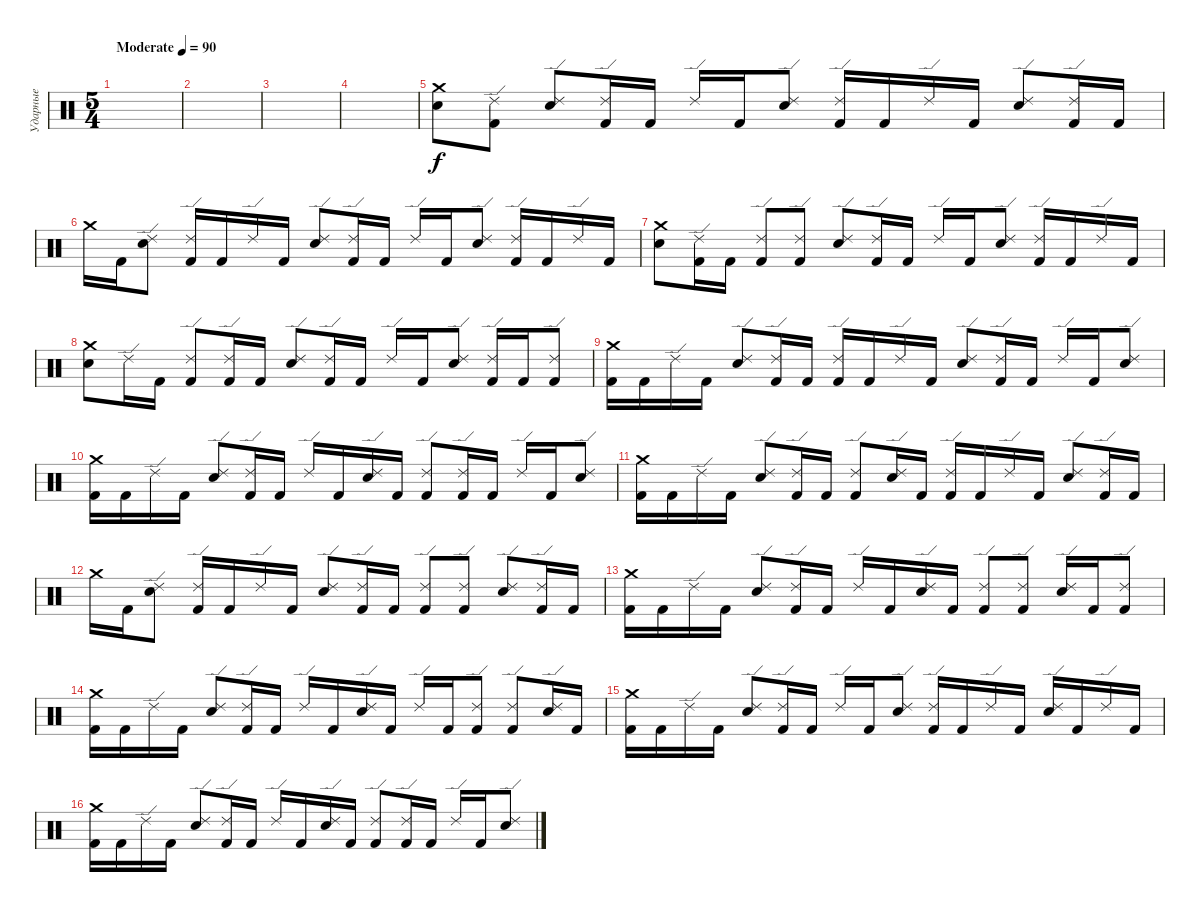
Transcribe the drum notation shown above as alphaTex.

\track ("Ударные" "Ударные") {instrument percussion}
\staff {score}
\articulation defaults
\ts (5 4)
\tempo (90 "Moderate")
\clef neutral
\ks c
|
|
|
|
("Crash medium (hit)" "Electric Snare (hit)").8 ("Ride (edge) 2" "Kick (hit) 2").8 ("Ride (edge) 2" "Electric Snare (hit)").8 ("Ride (edge) 2" "Kick (hit) 2").16 "Kick (hit) 2".16 "Ride (edge) 2".16 "Kick (hit) 2".16 ("Ride (edge) 2" "Electric Snare (hit)").8 ("Ride (edge) 2" "Kick (hit) 2").16 "Kick (hit) 2".16 "Ride (edge) 2".16 "Kick (hit) 2".16 ("Ride (edge) 2" "Electric Snare (hit)").8 ("Ride (edge) 2" "Kick (hit) 2").16 "Kick (hit) 2".16 |
"Crash medium (hit)".16 "Kick (hit) 2".16 ("Ride (edge) 2" "Electric Snare (hit)").8 ("Ride (edge) 2" "Kick (hit) 2").16 "Kick (hit) 2".16 "Ride (edge) 2".16 "Kick (hit) 2".16 ("Ride (edge) 2" "Electric Snare (hit)").8 ("Ride (edge) 2" "Kick (hit) 2").16 "Kick (hit) 2".16 "Ride (edge) 2".16 "Kick (hit) 2".16 ("Ride (edge) 2" "Electric Snare (hit)").8 ("Ride (edge) 2" "Kick (hit) 2").16 "Kick (hit) 2".16 "Ride (edge) 2".16 "Kick (hit) 2".16 |
("Crash medium (hit)" "Electric Snare (hit)").8 ("Ride (edge) 2" "Kick (hit) 2").16 "Kick (hit) 2".16 ("Ride (edge) 2" "Kick (hit) 2").8 ("Ride (edge) 2" "Kick (hit) 2").8 ("Ride (edge) 2" "Electric Snare (hit)").8 ("Ride (edge) 2" "Kick (hit) 2").16 "Kick (hit) 2".16 "Ride (edge) 2".16 "Kick (hit) 2".16 ("Ride (edge) 2" "Electric Snare (hit)").8 ("Ride (edge) 2" "Kick (hit) 2").16 "Kick (hit) 2".16 "Ride (edge) 2".16 "Kick (hit) 2".16 |
("Crash medium (hit)" "Electric Snare (hit)").8 "Ride (edge) 2".16 "Kick (hit) 2".16 ("Ride (edge) 2" "Kick (hit) 2").8 ("Ride (edge) 2" "Kick (hit) 2").16 "Kick (hit) 2".16 ("Ride (edge) 2" "Electric Snare (hit)").8 ("Ride (edge) 2" "Kick (hit) 2").16 "Kick (hit) 2".16 "Ride (edge) 2".16 "Kick (hit) 2".16 ("Ride (edge) 2" "Electric Snare (hit)").8 ("Ride (edge) 2" "Kick (hit) 2").16 "Kick (hit) 2".16 ("Ride (edge) 2" "Kick (hit) 2").8 |
("Crash medium (hit)" "Kick (hit) 2").16 "Kick (hit) 2".16 "Ride (edge) 2".16 "Kick (hit) 2".16 ("Ride (edge) 2" "Electric Snare (hit)").8 ("Ride (edge) 2" "Kick (hit) 2").16 "Kick (hit) 2".16 ("Ride (edge) 2" "Kick (hit) 2").16 "Kick (hit) 2".16 "Ride (edge) 2".16 "Kick (hit) 2".16 ("Ride (edge) 2" "Electric Snare (hit)").8 ("Ride (edge) 2" "Kick (hit) 2").16 "Kick (hit) 2".16 "Ride (edge) 2".16 "Kick (hit) 2".16 ("Ride (edge) 2" "Electric Snare (hit)").8 |
("Crash medium (hit)" "Kick (hit) 2").16 "Kick (hit) 2".16 "Ride (edge) 2".16 "Kick (hit) 2".16 ("Ride (edge) 2" "Electric Snare (hit)").8 ("Ride (edge) 2" "Kick (hit) 2").16 "Kick (hit) 2".16 "Ride (edge) 2".16 "Kick (hit) 2".16 ("Ride (edge) 2" "Electric Snare (hit)").16 "Kick (hit) 2".16 ("Ride (edge) 2" "Kick (hit) 2").8 ("Ride (edge) 2" "Kick (hit) 2").16 "Kick (hit) 2".16 "Ride (edge) 2".16 "Kick (hit) 2".16 ("Ride (edge) 2" "Electric Snare (hit)").8 |
("Crash medium (hit)" "Kick (hit) 2").16 "Kick (hit) 2".16 "Ride (edge) 2".16 "Kick (hit) 2".16 ("Ride (edge) 2" "Electric Snare (hit)").8 ("Ride (edge) 2" "Kick (hit) 2").16 "Kick (hit) 2".16 ("Ride (edge) 2" "Kick (hit) 2").8 ("Ride (edge) 2" "Electric Snare (hit)").16 "Kick (hit) 2".16 ("Ride (edge) 2" "Kick (hit) 2").16 "Kick (hit) 2".16 "Ride (edge) 2".16 "Kick (hit) 2".16 ("Ride (edge) 2" "Electric Snare (hit)").8 ("Ride (edge) 2" "Kick (hit) 2").16 "Kick (hit) 2".16 |
"Crash medium (hit)".16 "Kick (hit) 2".16 ("Ride (edge) 2" "Electric Snare (hit)").8 ("Ride (edge) 2" "Kick (hit) 2").16 "Kick (hit) 2".16 "Ride (edge) 2".16 "Kick (hit) 2".16 ("Ride (edge) 2" "Electric Snare (hit)").8 ("Ride (edge) 2" "Kick (hit) 2").16 "Kick (hit) 2".16 ("Ride (edge) 2" "Kick (hit) 2").8 ("Ride (edge) 2" "Kick (hit) 2").8 ("Ride (edge) 2" "Electric Snare (hit)").8 ("Ride (edge) 2" "Kick (hit) 2").16 "Kick (hit) 2".16 |
("Crash medium (hit)" "Kick (hit) 2").16 "Kick (hit) 2".16 "Ride (edge) 2".16 "Kick (hit) 2".16 ("Ride (edge) 2" "Electric Snare (hit)").8 ("Ride (edge) 2" "Kick (hit) 2").16 "Kick (hit) 2".16 "Ride (edge) 2".16 "Kick (hit) 2".16 ("Ride (edge) 2" "Electric Snare (hit)").16 "Kick (hit) 2".16 ("Ride (edge) 2" "Kick (hit) 2").8 ("Ride (edge) 2" "Kick (hit) 2").8 ("Ride (edge) 2" "Electric Snare (hit)").16 "Kick (hit) 2".16 ("Ride (edge) 2" "Kick (hit) 2").8 |
("Crash medium (hit)" "Kick (hit) 2").16 "Kick (hit) 2".16 "Ride (edge) 2".16 "Kick (hit) 2".16 ("Ride (edge) 2" "Electric Snare (hit)").8 ("Ride (edge) 2" "Kick (hit) 2").16 "Kick (hit) 2".16 "Ride (edge) 2".16 "Kick (hit) 2".16 ("Ride (edge) 2" "Electric Snare (hit)").16 "Kick (hit) 2".16 "Ride (edge) 2".16 "Kick (hit) 2".16 ("Ride (edge) 2" "Kick (hit) 2").8 ("Ride (edge) 2" "Kick (hit) 2").8 ("Ride (edge) 2" "Electric Snare (hit)").16 "Kick (hit) 2".16 |
("Crash medium (hit)" "Kick (hit) 2").16 "Kick (hit) 2".16 "Ride (edge) 2".16 "Kick (hit) 2".16 ("Ride (edge) 2" "Electric Snare (hit)").8 ("Ride (edge) 2" "Kick (hit) 2").16 "Kick (hit) 2".16 "Ride (edge) 2".16 "Kick (hit) 2".16 ("Ride (edge) 2" "Electric Snare (hit)").8 ("Ride (edge) 2" "Kick (hit) 2").16 "Kick (hit) 2".16 "Ride (edge) 2".16 "Kick (hit) 2".16 ("Ride (edge) 2" "Electric Snare (hit)").16 "Kick (hit) 2".16 "Ride (edge) 2".16 "Kick (hit) 2".16 |
("Crash medium (hit)" "Kick (hit) 2").16 "Kick (hit) 2".16 "Ride (edge) 2".16 "Kick (hit) 2".16 ("Ride (edge) 2" "Electric Snare (hit)").8 ("Ride (edge) 2" "Kick (hit) 2").16 "Kick (hit) 2".16 "Ride (edge) 2".16 "Kick (hit) 2".16 ("Ride (edge) 2" "Electric Snare (hit)").16 "Kick (hit) 2".16 ("Ride (edge) 2" "Kick (hit) 2").8 ("Ride (edge) 2" "Kick (hit) 2").16 "Kick (hit) 2".16 "Ride (edge) 2".16 "Kick (hit) 2".16 ("Ride (edge) 2" "Electric Snare (hit)").8
